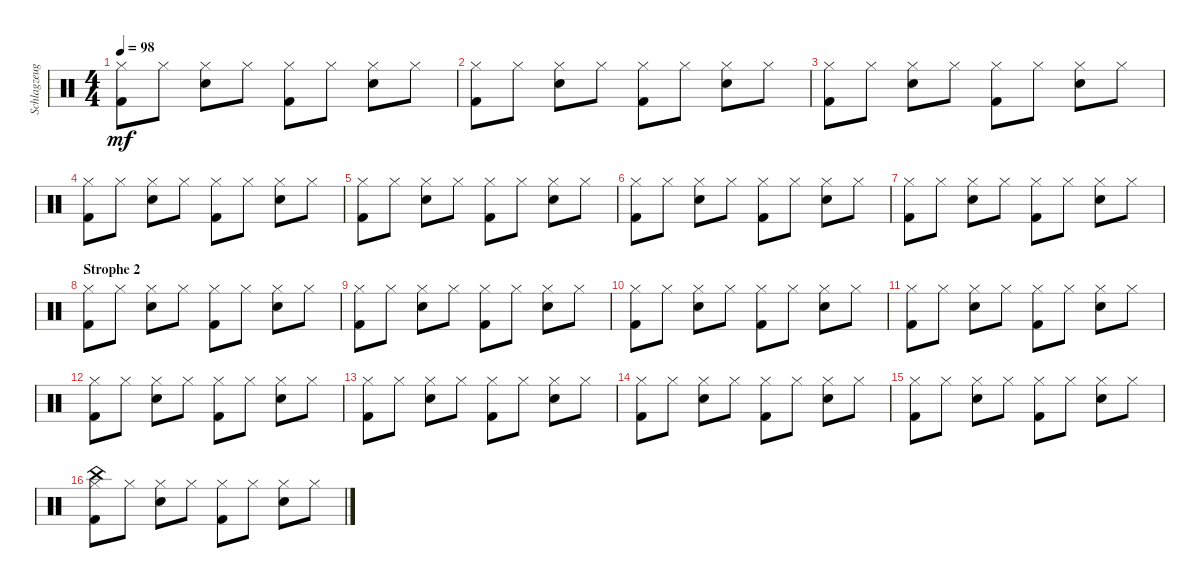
\track ("Schlagzeug" "Schlagzeug") {instrument percussion}
\staff {score}
\articulation defaults
\ts (4 4)
\tempo 98
\clef neutral
\ks c
("Hi-Hat (closed)" "Kick (hit) 2").8{dy mf} "Hi-Hat (closed)".8 ("Hi-Hat (closed)" "Electric Snare (hit)").8 "Hi-Hat (closed)".8 ("Hi-Hat (closed)" "Kick (hit) 2").8 "Hi-Hat (closed)".8 ("Hi-Hat (closed)" "Electric Snare (hit)").8 "Hi-Hat (closed)".8 |
("Hi-Hat (closed)" "Kick (hit) 2").8 "Hi-Hat (closed)".8 ("Hi-Hat (closed)" "Electric Snare (hit)").8 "Hi-Hat (closed)".8 ("Hi-Hat (closed)" "Kick (hit) 2").8 "Hi-Hat (closed)".8 ("Hi-Hat (closed)" "Electric Snare (hit)").8 "Hi-Hat (closed)".8 |
("Hi-Hat (closed)" "Kick (hit) 2").8 "Hi-Hat (closed)".8 ("Hi-Hat (closed)" "Electric Snare (hit)").8 "Hi-Hat (closed)".8 ("Hi-Hat (closed)" "Kick (hit) 2").8 "Hi-Hat (closed)".8 ("Hi-Hat (closed)" "Electric Snare (hit)").8 "Hi-Hat (closed)".8 |
("Hi-Hat (closed)" "Kick (hit) 2").8 "Hi-Hat (closed)".8 ("Hi-Hat (closed)" "Electric Snare (hit)").8 "Hi-Hat (closed)".8 ("Hi-Hat (closed)" "Kick (hit) 2").8 "Hi-Hat (closed)".8 ("Hi-Hat (closed)" "Electric Snare (hit)").8 "Hi-Hat (closed)".8 |
("Hi-Hat (closed)" "Kick (hit) 2").8 "Hi-Hat (closed)".8 ("Hi-Hat (closed)" "Electric Snare (hit)").8 "Hi-Hat (closed)".8 ("Hi-Hat (closed)" "Kick (hit) 2").8 "Hi-Hat (closed)".8 ("Hi-Hat (closed)" "Electric Snare (hit)").8 "Hi-Hat (closed)".8 |
("Hi-Hat (closed)" "Kick (hit) 2").8 "Hi-Hat (closed)".8 ("Hi-Hat (closed)" "Electric Snare (hit)").8 "Hi-Hat (closed)".8 ("Hi-Hat (closed)" "Kick (hit) 2").8 "Hi-Hat (closed)".8 ("Hi-Hat (closed)" "Electric Snare (hit)").8 "Hi-Hat (closed)".8 |
("Hi-Hat (closed)" "Kick (hit) 2").8 "Hi-Hat (closed)".8 ("Hi-Hat (closed)" "Electric Snare (hit)").8 "Hi-Hat (closed)".8 ("Hi-Hat (closed)" "Kick (hit) 2").8 "Hi-Hat (closed)".8 ("Hi-Hat (closed)" "Electric Snare (hit)").8 "Hi-Hat (closed)".8 |
\section ("" "Strophe 2")
("Hi-Hat (closed)" "Kick (hit) 2").8 "Hi-Hat (closed)".8 ("Hi-Hat (closed)" "Electric Snare (hit)").8 "Hi-Hat (closed)".8 ("Hi-Hat (closed)" "Kick (hit) 2").8 "Hi-Hat (closed)".8 ("Hi-Hat (closed)" "Electric Snare (hit)").8 "Hi-Hat (closed)".8 |
("Hi-Hat (closed)" "Kick (hit) 2").8 "Hi-Hat (closed)".8 ("Hi-Hat (closed)" "Electric Snare (hit)").8 "Hi-Hat (closed)".8 ("Hi-Hat (closed)" "Kick (hit) 2").8 "Hi-Hat (closed)".8 ("Hi-Hat (closed)" "Electric Snare (hit)").8 "Hi-Hat (closed)".8 |
("Hi-Hat (closed)" "Kick (hit) 2").8 "Hi-Hat (closed)".8 ("Hi-Hat (closed)" "Electric Snare (hit)").8 "Hi-Hat (closed)".8 ("Hi-Hat (closed)" "Kick (hit) 2").8 "Hi-Hat (closed)".8 ("Hi-Hat (closed)" "Electric Snare (hit)").8 "Hi-Hat (closed)".8 |
("Hi-Hat (closed)" "Kick (hit) 2").8 "Hi-Hat (closed)".8 ("Hi-Hat (closed)" "Electric Snare (hit)").8 "Hi-Hat (closed)".8 ("Hi-Hat (closed)" "Kick (hit) 2").8 "Hi-Hat (closed)".8 ("Hi-Hat (closed)" "Electric Snare (hit)").8 "Hi-Hat (closed)".8 |
("Hi-Hat (closed)" "Kick (hit) 2").8 "Hi-Hat (closed)".8 ("Hi-Hat (closed)" "Electric Snare (hit)").8 "Hi-Hat (closed)".8 ("Hi-Hat (closed)" "Kick (hit) 2").8 "Hi-Hat (closed)".8 ("Hi-Hat (closed)" "Electric Snare (hit)").8 "Hi-Hat (closed)".8 |
("Hi-Hat (closed)" "Kick (hit) 2").8 "Hi-Hat (closed)".8 ("Hi-Hat (closed)" "Electric Snare (hit)").8 "Hi-Hat (closed)".8 ("Hi-Hat (closed)" "Kick (hit) 2").8 "Hi-Hat (closed)".8 ("Hi-Hat (closed)" "Electric Snare (hit)").8 "Hi-Hat (closed)".8 |
("Hi-Hat (closed)" "Kick (hit) 2").8 "Hi-Hat (closed)".8 ("Hi-Hat (closed)" "Electric Snare (hit)").8 "Hi-Hat (closed)".8 ("Hi-Hat (closed)" "Kick (hit) 2").8 "Hi-Hat (closed)".8 ("Hi-Hat (closed)" "Electric Snare (hit)").8 "Hi-Hat (closed)".8 |
("Hi-Hat (closed)" "Kick (hit) 2").8 "Hi-Hat (closed)".8 ("Hi-Hat (closed)" "Electric Snare (hit)").8 "Hi-Hat (closed)".8 ("Hi-Hat (closed)" "Kick (hit) 2").8 "Hi-Hat (closed)".8 ("Hi-Hat (closed)" "Electric Snare (hit)").8 "Hi-Hat (closed)".8 |
("China (hit)" "Hi-Hat (closed)" "Kick (hit) 2").8 "Hi-Hat (closed)".8 ("Hi-Hat (closed)" "Electric Snare (hit)").8 "Hi-Hat (closed)".8 ("Hi-Hat (closed)" "Kick (hit) 2").8 "Hi-Hat (closed)".8 ("Hi-Hat (closed)" "Electric Snare (hit)").8 "Hi-Hat (closed)".8
